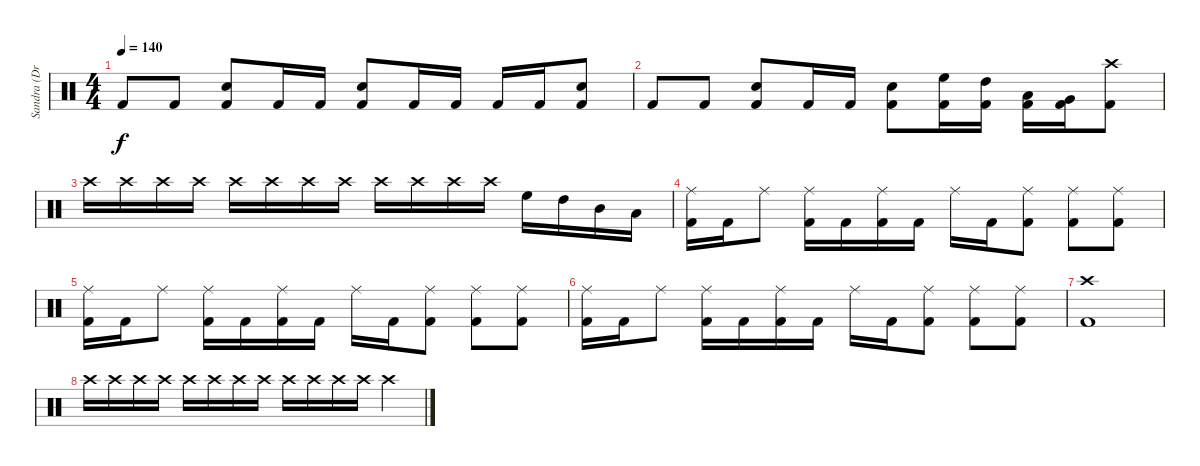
\track ("Sandra (Drums)" "Sandra (Dr") {instrument percussion}
\staff {score}
\articulation defaults
\ts (4 4)
\tempo 140
\clef neutral
\ks c "Kick (hit) 2".8{dy f} "Kick (hit) 2".8
("Snare (hit) 2" "Kick (hit) 2").8 "Kick (hit) 2".16 "Kick (hit) 2".16 ("Snare (hit) 2" "Kick (hit) 2").8 "Kick (hit) 2".16 "Kick (hit) 2".16 "Kick (hit) 2".16 "Kick (hit) 2".16 ("Snare (hit) 2" "Kick (hit) 2").8 |
"Kick (hit) 2".8 "Kick (hit) 2".8 ("Snare (hit) 2" "Kick (hit) 2").8 "Kick (hit) 2".16 "Kick (hit) 2".16 ("Snare (hit) 2" "Kick (hit) 2").8 ("Kick (hit) 2" "High Floor Tom (hit)").16 ("Kick (hit) 2" "High Tom (hit)").16 ("Kick (hit) 2" "Low Tom (hit)").16 ("Kick (hit) 2" "Very Low Tom (hit)").16 ("Crash high (hit)" "Kick (hit) 2").8 |
"Crash high (hit)".16 "Crash high (hit)".16 "Crash high (hit)".16 "Crash high (hit)".16 "Crash high (hit)".16 "Crash high (hit)".16 "Crash high (hit)".16 "Crash high (hit)".16 "Crash high (hit)".16 "Crash high (hit)".16 "Crash high (hit)".16 "Crash high (hit)".16 "High Floor Tom (hit)".16 "High Tom (hit)".16 "Mid Tom (hit)".16 "Low Tom (hit)".16 |
("Ride (middle)" "Kick (hit) 2").16 "Kick (hit) 2".16 "Ride (middle)".8 ("Ride (middle)" "Kick (hit) 2").16 "Kick (hit) 2".16 ("Ride (middle)" "Kick (hit) 2").16 "Kick (hit) 2".16 "Ride (middle)".16 "Kick (hit) 2".16 ("Ride (middle)" "Kick (hit) 2").8 ("Ride (middle)" "Kick (hit) 2").8 ("Ride (middle)" "Kick (hit) 2").8 |
("Ride (middle)" "Kick (hit) 2").16 "Kick (hit) 2".16 "Ride (middle)".8 ("Ride (middle)" "Kick (hit) 2").16 "Kick (hit) 2".16 ("Ride (middle)" "Kick (hit) 2").16 "Kick (hit) 2".16 "Ride (middle)".16 "Kick (hit) 2".16 ("Ride (middle)" "Kick (hit) 2").8 ("Ride (middle)" "Kick (hit) 2").8 ("Ride (middle)" "Kick (hit) 2").8 |
("Ride (middle)" "Kick (hit) 2").16 "Kick (hit) 2".16 "Ride (middle)".8 ("Ride (middle)" "Kick (hit) 2").16 "Kick (hit) 2".16 ("Ride (middle)" "Kick (hit) 2").16 "Kick (hit) 2".16 "Ride (middle)".16 "Kick (hit) 2".16 ("Ride (middle)" "Kick (hit) 2").8 ("Ride (middle)" "Kick (hit) 2").8 ("Ride (middle)" "Kick (hit) 2").8 |
("Crash high (hit)" "Kick (hit) 2").1 |
"Crash high (hit)".16 "Crash high (hit)".16 "Crash high (hit)".16 "Crash high (hit)".16 "Crash high (hit)".16 "Crash high (hit)".16 "Crash high (hit)".16 "Crash high (hit)".16 "Crash high (hit)".16 "Crash high (hit)".16 "Crash high (hit)".16 "Crash high (hit)".16 "Crash high (hit)".4
